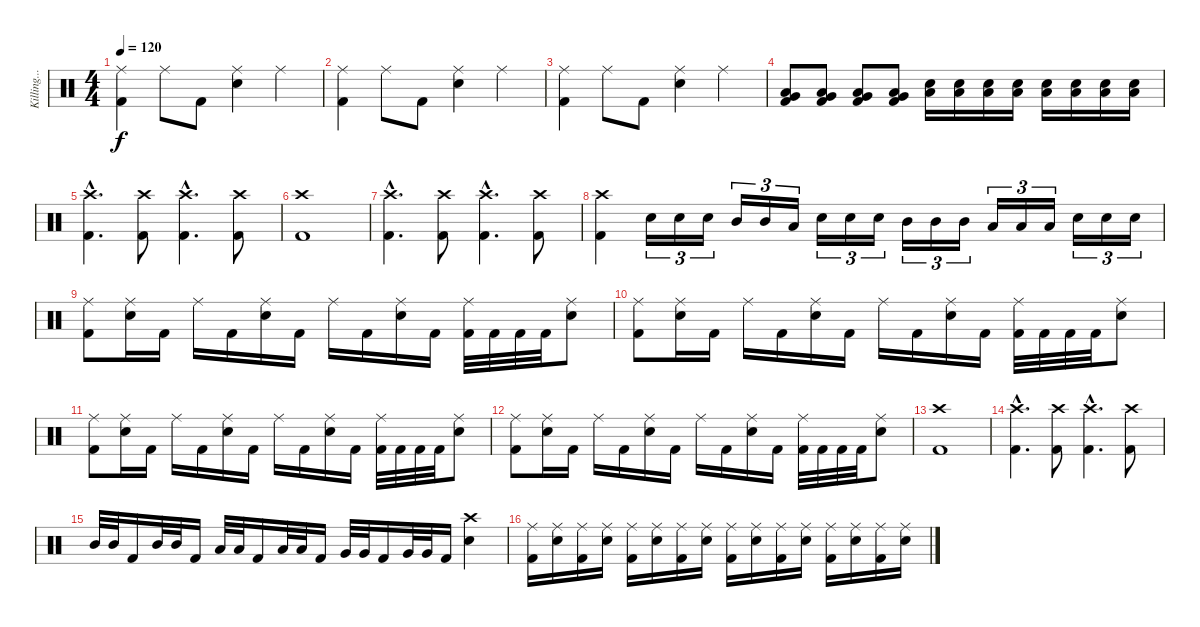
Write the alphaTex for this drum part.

\track ("Killing.....Is His Business" "Killing...") {instrument percussion}
\staff {score}
\articulation defaults
\ts (4 4)
\tempo 120
\clef neutral
\ks c
("Ride (middle)" "Kick (hit) 2").4{dy f} "Ride (middle)".8 "Kick (hit) 2".8 ("Ride (middle)" "Snare (hit) 2").4 "Ride (middle)".4 |
("Ride (middle)" "Kick (hit) 2").4 "Ride (middle)".8 "Kick (hit) 2".8 ("Ride (middle)" "Snare (hit) 2").4 "Ride (middle)".4 |
("Ride (middle)" "Kick (hit) 2").4 "Ride (middle)".8 "Kick (hit) 2".8 ("Ride (middle)" "Snare (hit) 2").4 "Ride (middle)".4 |
("Low Tom (hit)" "Very Low Tom (hit)" "Kick (hit) 2").8 ("Low Tom (hit)" "Very Low Tom (hit)" "Kick (hit) 2").8 ("Low Tom (hit)" "Very Low Tom (hit)" "Kick (hit) 2").8 ("Low Tom (hit)" "Very Low Tom (hit)" "Kick (hit) 2").8 ("Snare (hit) 2" "Low Tom (hit)").16 ("Snare (hit) 2" "Low Tom (hit)").16 ("Snare (hit) 2" "Low Tom (hit)").16 ("Snare (hit) 2" "Low Tom (hit)").16 ("Snare (hit) 2" "Low Tom (hit)").16 ("Snare (hit) 2" "Low Tom (hit)").16 ("Snare (hit) 2" "Low Tom (hit)").16 ("Snare (hit) 2" "Low Tom (hit)").16 |
("Crash high (hit)"{hac} "Kick (hit) 2"{hac}).4{d} ("Crash high (hit)" "Kick (hit) 2").8 ("Crash high (hit)"{hac} "Kick (hit) 2"{hac}).4{d} ("Crash high (hit)" "Kick (hit) 2").8 |
("Crash high (hit)" "Kick (hit) 2").1 |
("Crash high (hit)"{hac} "Kick (hit) 2"{hac}).4{d} ("Crash high (hit)" "Kick (hit) 2").8 ("Crash high (hit)"{hac} "Kick (hit) 2"{hac}).4{d} ("Crash high (hit)" "Kick (hit) 2").8 |
("Crash high (hit)" "Kick (hit) 2").4 "Snare (hit) 2".16{tu (3 2)} "Snare (hit) 2".16{tu (3 2)} "Snare (hit) 2".16{tu (3 2)} "Mid Tom (hit)".16{tu (3 2)} "Mid Tom (hit)".16{tu (3 2)} "Low Tom (hit)".16{tu (3 2)} "Snare (hit) 2".16{tu (3 2)} "Snare (hit) 2".16{tu (3 2)} "Snare (hit) 2".16{tu (3 2)} "Mid Tom (hit)".16{tu (3 2)} "Mid Tom (hit)".16{tu (3 2)} "Mid Tom (hit)".16{tu (3 2)} "Low Tom (hit)".16{tu (3 2)} "Low Tom (hit)".16{tu (3 2)} "Low Tom (hit)".16{tu (3 2)} "Snare (hit) 2".16{tu (3 2)} "Snare (hit) 2".16{tu (3 2)} "Snare (hit) 2".16{tu (3 2)} |
("Ride (middle)" "Kick (hit) 2").8 ("Ride (middle)" "Snare (hit) 2").16 "Kick (hit) 2".16 "Ride (middle)".16 "Kick (hit) 2".16 ("Ride (middle)" "Snare (hit) 2").16 "Kick (hit) 2".16 "Ride (middle)".16 "Kick (hit) 2".16 ("Ride (middle)" "Snare (hit) 2").16 "Kick (hit) 2".16 ("Ride (middle)" "Kick (hit) 2").32 "Kick (hit) 2".32 "Kick (hit) 2".32 "Kick (hit) 2".32 ("Ride (middle)" "Snare (hit) 2").8 |
("Ride (middle)" "Kick (hit) 2").8 ("Ride (middle)" "Snare (hit) 2").16 "Kick (hit) 2".16 "Ride (middle)".16 "Kick (hit) 2".16 ("Ride (middle)" "Snare (hit) 2").16 "Kick (hit) 2".16 "Ride (middle)".16 "Kick (hit) 2".16 ("Ride (middle)" "Snare (hit) 2").16 "Kick (hit) 2".16 ("Ride (middle)" "Kick (hit) 2").32 "Kick (hit) 2".32 "Kick (hit) 2".32 "Kick (hit) 2".32 ("Ride (middle)" "Snare (hit) 2").8 |
("Ride (middle)" "Kick (hit) 2").8 ("Ride (middle)" "Snare (hit) 2").16 "Kick (hit) 2".16 "Ride (middle)".16 "Kick (hit) 2".16 ("Ride (middle)" "Snare (hit) 2").16 "Kick (hit) 2".16 "Ride (middle)".16 "Kick (hit) 2".16 ("Ride (middle)" "Snare (hit) 2").16 "Kick (hit) 2".16 ("Ride (middle)" "Kick (hit) 2").32 "Kick (hit) 2".32 "Kick (hit) 2".32 "Kick (hit) 2".32 ("Ride (middle)" "Snare (hit) 2").8 |
("Ride (middle)" "Kick (hit) 2").8 ("Ride (middle)" "Snare (hit) 2").16 "Kick (hit) 2".16 "Ride (middle)".16 "Kick (hit) 2".16 ("Ride (middle)" "Snare (hit) 2").16 "Kick (hit) 2".16 "Ride (middle)".16 "Kick (hit) 2".16 ("Ride (middle)" "Snare (hit) 2").16 "Kick (hit) 2".16 ("Ride (middle)" "Kick (hit) 2").32 "Kick (hit) 2".32 "Kick (hit) 2".32 "Kick (hit) 2".32 ("Ride (middle)" "Snare (hit) 2").8 |
("Crash high (hit)" "Kick (hit) 2").1 |
("Crash high (hit)"{hac} "Kick (hit) 2"{hac}).4{d} ("Crash high (hit)" "Kick (hit) 2").8 ("Crash high (hit)"{hac} "Kick (hit) 2"{hac}).4{d} ("Crash high (hit)" "Kick (hit) 2").8 |
"Mid Tom (hit)".32 "Mid Tom (hit)".32 "Kick (hit) 2".16 "Mid Tom (hit)".32 "Mid Tom (hit)".32 "Kick (hit) 2".16 "Low Tom (hit)".32 "Low Tom (hit)".32 "Kick (hit) 2".16 "Low Tom (hit)".32 "Low Tom (hit)".32 "Kick (hit) 2".16 "Very Low Tom (hit)".32 "Very Low Tom (hit)".32 "Kick (hit) 2".16 "Very Low Tom (hit)".32 "Very Low Tom (hit)".32 "Kick (hit) 2".16 ("Crash high (hit)" "Snare (hit) 2").4 |
("Ride (middle)" "Kick (hit) 2").16 ("Ride (middle)" "Snare (hit) 2").16 ("Ride (middle)" "Kick (hit) 2").16 ("Ride (middle)" "Snare (hit) 2").16 ("Ride (middle)" "Kick (hit) 2").16 ("Ride (middle)" "Snare (hit) 2").16 ("Ride (middle)" "Kick (hit) 2").16 ("Ride (middle)" "Snare (hit) 2").16 ("Ride (middle)" "Kick (hit) 2").16 ("Ride (middle)" "Snare (hit) 2").16 ("Ride (middle)" "Kick (hit) 2").16 ("Ride (middle)" "Snare (hit) 2").16 ("Ride (middle)" "Kick (hit) 2").16 ("Ride (middle)" "Snare (hit) 2").16 ("Ride (middle)" "Kick (hit) 2").16 ("Ride (middle)" "Snare (hit) 2").16
